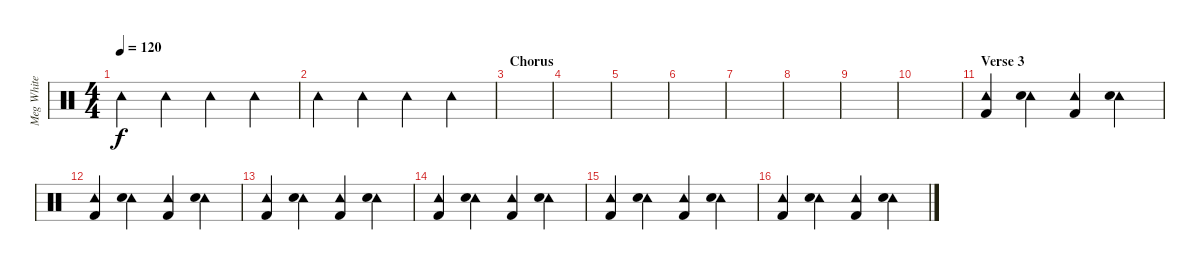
\track ("Meg White" "Meg White") {instrument percussion}
\staff {score}
\articulation defaults
\ts (4 4)
\tempo 120
\clef neutral
\ks c "Tambourine (hit)".4{dy f} "Tambourine (hit)".4 "Tambourine (hit)".4 "Tambourine (hit)".4
|
"Tambourine (hit)".4 "Tambourine (hit)".4 "Tambourine (hit)".4 "Tambourine (hit)".4 |
\section ("" "Chorus")
|
|
|
|
|
|
|
|
\section ("" "Verse 3")
("Tambourine (hit)" "Kick (hit) 2").4 ("Tambourine (hit)" "Electric Snare (hit)").4 ("Tambourine (hit)" "Kick (hit) 2").4 ("Tambourine (hit)" "Electric Snare (hit)").4 |
("Tambourine (hit)" "Kick (hit) 2").4 ("Tambourine (hit)" "Electric Snare (hit)").4 ("Tambourine (hit)" "Kick (hit) 2").4 ("Tambourine (hit)" "Electric Snare (hit)").4 |
("Tambourine (hit)" "Kick (hit) 2").4 ("Tambourine (hit)" "Electric Snare (hit)").4 ("Tambourine (hit)" "Kick (hit) 2").4 ("Tambourine (hit)" "Electric Snare (hit)").4 |
("Tambourine (hit)" "Kick (hit) 2").4 ("Tambourine (hit)" "Electric Snare (hit)").4 ("Tambourine (hit)" "Kick (hit) 2").4 ("Tambourine (hit)" "Electric Snare (hit)").4 |
("Tambourine (hit)" "Kick (hit) 2").4 ("Tambourine (hit)" "Electric Snare (hit)").4 ("Tambourine (hit)" "Kick (hit) 2").4 ("Tambourine (hit)" "Electric Snare (hit)").4 |
("Tambourine (hit)" "Kick (hit) 2").4 ("Tambourine (hit)" "Electric Snare (hit)").4 ("Tambourine (hit)" "Kick (hit) 2").4 ("Tambourine (hit)" "Electric Snare (hit)").4
